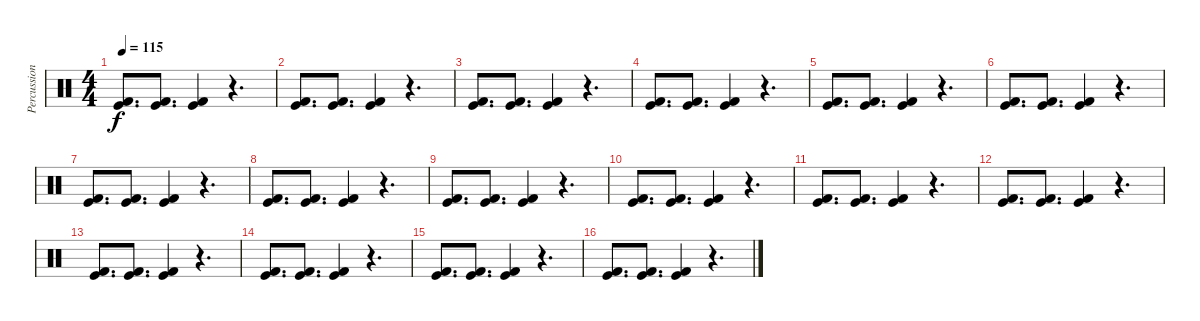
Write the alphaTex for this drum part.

\track ("Percussions" "Percussion") {instrument percussion}
\staff {score}
\articulation defaults
\ts (4 4)
\tempo 115
\clef neutral
\ks c
("Kick (hit) 2" "Kick (hit)").8{d dy f} ("Kick (hit) 2" "Kick (hit)").8{d} ("Kick (hit) 2" "Kick (hit)").4 r.4{d} |
("Kick (hit) 2" "Kick (hit)").8{d} ("Kick (hit) 2" "Kick (hit)").8{d} ("Kick (hit) 2" "Kick (hit)").4 r.4{d} |
("Kick (hit) 2" "Kick (hit)").8{d} ("Kick (hit) 2" "Kick (hit)").8{d} ("Kick (hit) 2" "Kick (hit)").4 r.4{d} |
("Kick (hit) 2" "Kick (hit)").8{d} ("Kick (hit) 2" "Kick (hit)").8{d} ("Kick (hit) 2" "Kick (hit)").4 r.4{d} |
("Kick (hit) 2" "Kick (hit)").8{d} ("Kick (hit) 2" "Kick (hit)").8{d} ("Kick (hit) 2" "Kick (hit)").4 r.4{d} |
("Kick (hit) 2" "Kick (hit)").8{d} ("Kick (hit) 2" "Kick (hit)").8{d} ("Kick (hit) 2" "Kick (hit)").4 r.4{d} |
("Kick (hit) 2" "Kick (hit)").8{d} ("Kick (hit) 2" "Kick (hit)").8{d} ("Kick (hit) 2" "Kick (hit)").4 r.4{d} |
("Kick (hit) 2" "Kick (hit)").8{d} ("Kick (hit) 2" "Kick (hit)").8{d} ("Kick (hit) 2" "Kick (hit)").4 r.4{d} |
("Kick (hit) 2" "Kick (hit)").8{d} ("Kick (hit) 2" "Kick (hit)").8{d} ("Kick (hit) 2" "Kick (hit)").4 r.4{d} |
("Kick (hit) 2" "Kick (hit)").8{d} ("Kick (hit) 2" "Kick (hit)").8{d} ("Kick (hit) 2" "Kick (hit)").4 r.4{d} |
("Kick (hit) 2" "Kick (hit)").8{d} ("Kick (hit) 2" "Kick (hit)").8{d} ("Kick (hit) 2" "Kick (hit)").4 r.4{d} |
("Kick (hit) 2" "Kick (hit)").8{d} ("Kick (hit) 2" "Kick (hit)").8{d} ("Kick (hit) 2" "Kick (hit)").4 r.4{d} |
("Kick (hit) 2" "Kick (hit)").8{d} ("Kick (hit) 2" "Kick (hit)").8{d} ("Kick (hit) 2" "Kick (hit)").4 r.4{d} |
("Kick (hit) 2" "Kick (hit)").8{d} ("Kick (hit) 2" "Kick (hit)").8{d} ("Kick (hit) 2" "Kick (hit)").4 r.4{d} |
("Kick (hit) 2" "Kick (hit)").8{d} ("Kick (hit) 2" "Kick (hit)").8{d} ("Kick (hit) 2" "Kick (hit)").4 r.4{d} |
("Kick (hit) 2" "Kick (hit)").8{d} ("Kick (hit) 2" "Kick (hit)").8{d} ("Kick (hit) 2" "Kick (hit)").4 r.4{d}
